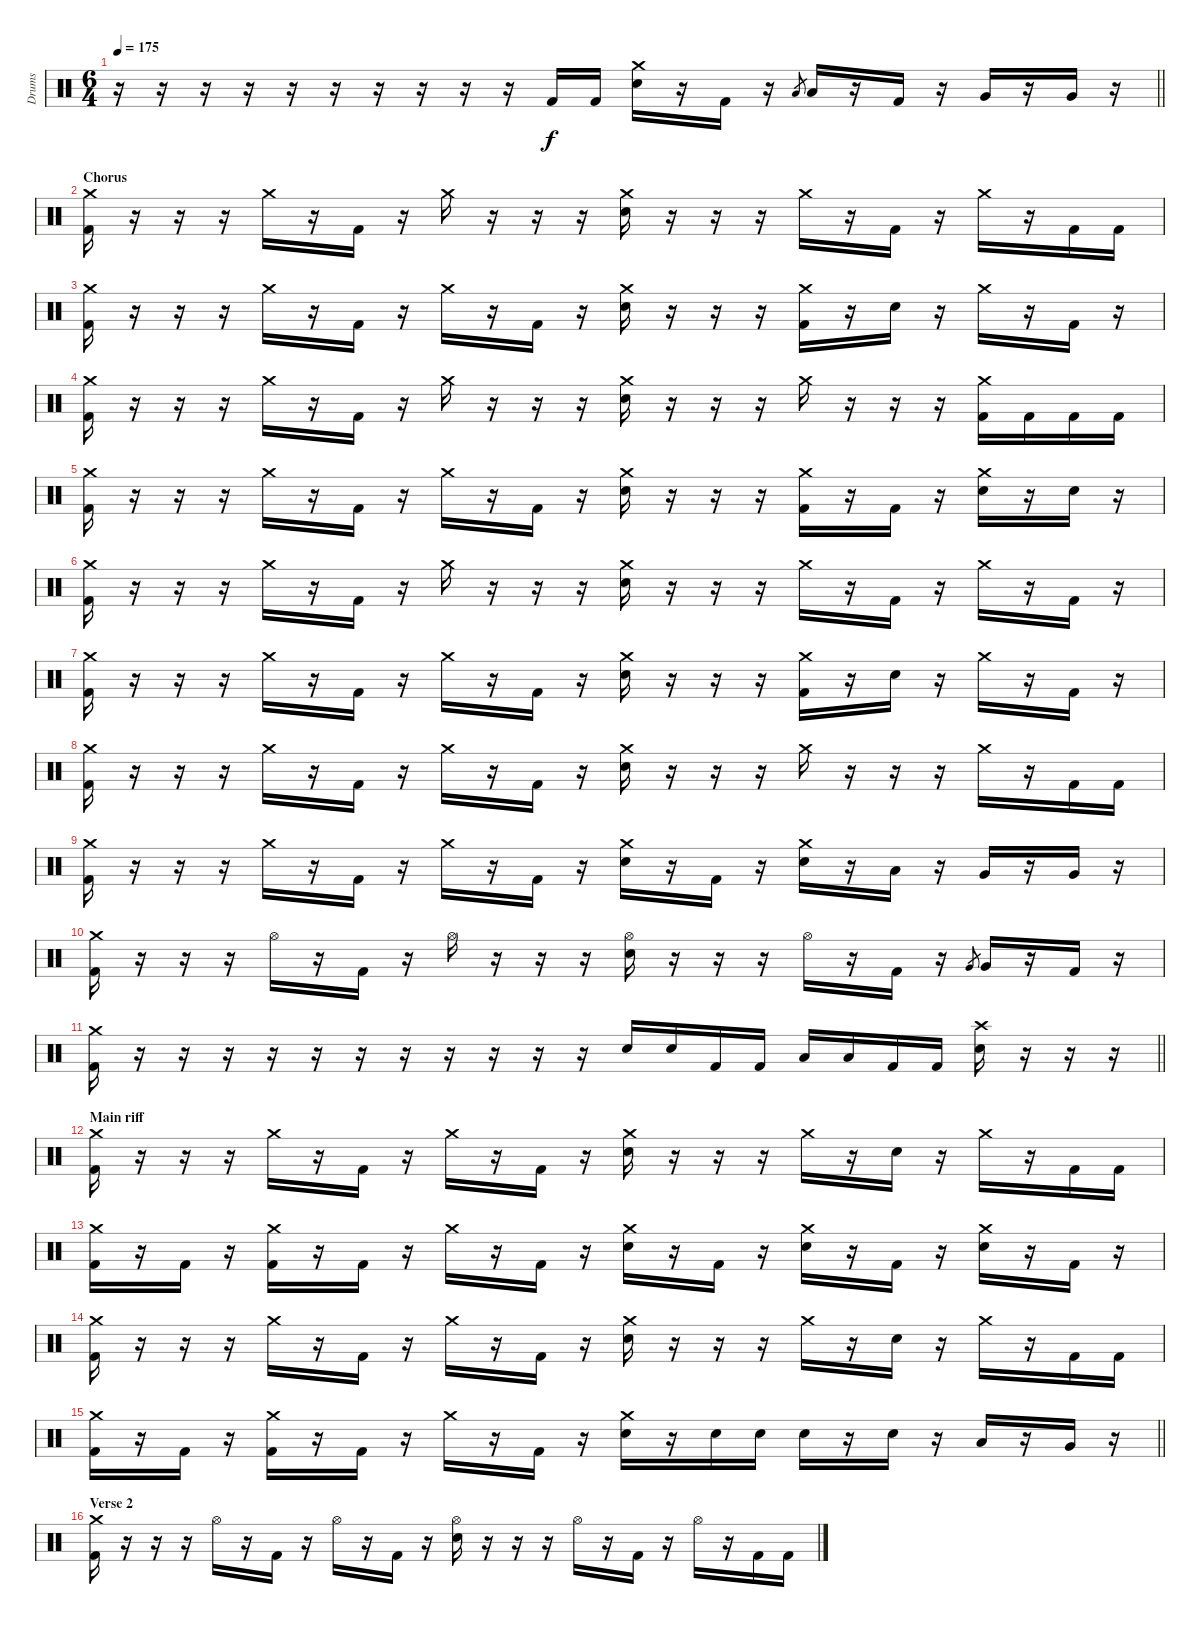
\track ("Drums" "Drums") {instrument percussion}
\staff {score}
\articulation defaults
\ts (6 4)
\tempo 175
\clef neutral
\barLineRight lightlight
\ks c
r.16{dy f} r.16 r.16 r.16 r.16 r.16 r.16 r.16 r.16 r.16 "Kick (hit) 2".16 "Kick (hit) 2".16 ("Crash medium (hit)" "Electric Snare (hit)").16 r.16 "Kick (hit) 2".16 r.16 "Low Tom (hit)".8{gr} "Low Tom (hit)".16 r.16 "Kick (hit) 2".16 r.16 "Very Low Tom (hit)".16 r.16 "Very Low Tom (hit)".16 r.16 |
\section ("" "Chorus")
("Crash medium (hit)" "Kick (hit) 2").16 r.16 r.16 r.16 "Crash medium (hit)".16 r.16 "Kick (hit) 2".16 r.16 "Crash medium (hit)".16 r.16 r.16 r.16 ("Crash medium (hit)" "Electric Snare (hit)").16 r.16 r.16 r.16 "Crash medium (hit)".16 r.16 "Kick (hit) 2".16 r.16 "Crash medium (hit)".16 r.16 "Kick (hit) 2".16 "Kick (hit) 2".16 |
("Crash medium (hit)" "Kick (hit) 2").16 r.16 r.16 r.16 "Crash medium (hit)".16 r.16 "Kick (hit) 2".16 r.16 "Crash medium (hit)".16 r.16 "Kick (hit) 2".16 r.16 ("Crash medium (hit)" "Electric Snare (hit)").16 r.16 r.16 r.16 ("Crash medium (hit)" "Kick (hit) 2").16 r.16 "Electric Snare (hit)".16 r.16 "Crash medium (hit)".16 r.16 "Kick (hit) 2".16 r.16 |
("Crash medium (hit)" "Kick (hit) 2").16 r.16 r.16 r.16 "Crash medium (hit)".16 r.16 "Kick (hit) 2".16 r.16 "Crash medium (hit)".16 r.16 r.16 r.16 ("Crash medium (hit)" "Electric Snare (hit)").16 r.16 r.16 r.16 "Crash medium (hit)".16 r.16 r.16 r.16 ("Crash medium (hit)" "Kick (hit) 2").16 "Kick (hit) 2".16 "Kick (hit) 2".16 "Kick (hit) 2".16 |
("Crash medium (hit)" "Kick (hit) 2").16 r.16 r.16 r.16 "Crash medium (hit)".16 r.16 "Kick (hit) 2".16 r.16 "Crash medium (hit)".16 r.16 "Kick (hit) 2".16 r.16 ("Crash medium (hit)" "Electric Snare (hit)").16 r.16 r.16 r.16 ("Crash medium (hit)" "Kick (hit) 2").16 r.16 "Kick (hit) 2".16 r.16 ("Crash medium (hit)" "Electric Snare (hit)").16 r.16 "Electric Snare (hit)".16 r.16 |
("Crash medium (hit)" "Kick (hit) 2").16 r.16 r.16 r.16 "Crash medium (hit)".16 r.16 "Kick (hit) 2".16 r.16 "Crash medium (hit)".16 r.16 r.16 r.16 ("Crash medium (hit)" "Electric Snare (hit)").16 r.16 r.16 r.16 "Crash medium (hit)".16 r.16 "Kick (hit) 2".16 r.16 "Crash medium (hit)".16 r.16 "Kick (hit) 2".16 r.16 |
("Crash medium (hit)" "Kick (hit) 2").16 r.16 r.16 r.16 "Crash medium (hit)".16 r.16 "Kick (hit) 2".16 r.16 "Crash medium (hit)".16 r.16 "Kick (hit) 2".16 r.16 ("Crash medium (hit)" "Electric Snare (hit)").16 r.16 r.16 r.16 ("Crash medium (hit)" "Kick (hit) 2").16 r.16 "Electric Snare (hit)".16 r.16 "Crash medium (hit)".16 r.16 "Kick (hit) 2".16 r.16 |
("Crash medium (hit)" "Kick (hit) 2").16 r.16 r.16 r.16 "Crash medium (hit)".16 r.16 "Kick (hit) 2".16 r.16 "Crash medium (hit)".16 r.16 "Kick (hit) 2".16 r.16 ("Crash medium (hit)" "Electric Snare (hit)").16 r.16 r.16 r.16 "Crash medium (hit)".16 r.16 r.16 r.16 "Crash medium (hit)".16 r.16 "Kick (hit) 2".16 "Kick (hit) 2".16 |
("Crash medium (hit)" "Kick (hit) 2").16 r.16 r.16 r.16 "Crash medium (hit)".16 r.16 "Kick (hit) 2".16 r.16 "Crash medium (hit)".16 r.16 "Kick (hit) 2".16 r.16 ("Crash medium (hit)" "Electric Snare (hit)").16 r.16 "Kick (hit) 2".16 r.16 ("Crash medium (hit)" "Electric Snare (hit)").16 r.16 "Low Tom (hit)".16 r.16 "Very Low Tom (hit)".16 r.16 "Very Low Tom (hit)".16 r.16 |
("Crash medium (hit)" "Kick (hit) 2").16 r.16 r.16 r.16 "Hi-Hat (open)".16 r.16 "Kick (hit) 2".16 r.16 "Hi-Hat (open)".16 r.16 r.16 r.16 ("Hi-Hat (open)" "Electric Snare (hit)").16 r.16 r.16 r.16 "Hi-Hat (open)".16 r.16 "Kick (hit) 2".16 r.16 "Very Low Tom (hit)".8{gr} "Very Low Tom (hit)".16 r.16 "Kick (hit) 2".16 r.16 |
\barLineRight lightlight
("Crash medium (hit)" "Kick (hit) 2").16 r.16 r.16 r.16 r.16 r.16 r.16 r.16 r.16 r.16 r.16 r.16 "Electric Snare (hit)".16 "Electric Snare (hit)".16 "Kick (hit) 2".16 "Kick (hit) 2".16 "Low Tom (hit)".16 "Low Tom (hit)".16 "Kick (hit) 2".16 "Kick (hit) 2".16 ("Crash high (hit)" "Electric Snare (hit)").16 r.16 r.16 r.16 |
\section ("" "Main riff")
("Crash medium (hit)" "Kick (hit) 2").16 r.16 r.16 r.16 "Crash medium (hit)".16 r.16 "Kick (hit) 2".16 r.16 "Crash medium (hit)".16 r.16 "Kick (hit) 2".16 r.16 ("Crash medium (hit)" "Electric Snare (hit)").16 r.16 r.16 r.16 "Crash medium (hit)".16 r.16 "Electric Snare (hit)".16 r.16 "Crash medium (hit)".16 r.16 "Kick (hit) 2".16 "Kick (hit) 2".16 |
("Crash medium (hit)" "Kick (hit) 2").16 r.16 "Kick (hit) 2".16 r.16 ("Crash medium (hit)" "Kick (hit) 2").16 r.16 "Kick (hit) 2".16 r.16 "Crash medium (hit)".16 r.16 "Kick (hit) 2".16 r.16 ("Crash medium (hit)" "Electric Snare (hit)").16 r.16 "Kick (hit) 2".16 r.16 ("Crash medium (hit)" "Electric Snare (hit)").16 r.16 "Kick (hit) 2".16 r.16 ("Crash medium (hit)" "Electric Snare (hit)").16 r.16 "Kick (hit) 2".16 r.16 |
("Crash medium (hit)" "Kick (hit) 2").16 r.16 r.16 r.16 "Crash medium (hit)".16 r.16 "Kick (hit) 2".16 r.16 "Crash medium (hit)".16 r.16 "Kick (hit) 2".16 r.16 ("Crash medium (hit)" "Electric Snare (hit)").16 r.16 r.16 r.16 "Crash medium (hit)".16 r.16 "Electric Snare (hit)".16 r.16 "Crash medium (hit)".16 r.16 "Kick (hit) 2".16 "Kick (hit) 2".16 |
\barLineRight lightlight
("Crash medium (hit)" "Kick (hit) 2").16 r.16 "Kick (hit) 2".16 r.16 ("Crash medium (hit)" "Kick (hit) 2").16 r.16 "Kick (hit) 2".16 r.16 "Crash medium (hit)".16 r.16 "Kick (hit) 2".16 r.16 ("Crash medium (hit)" "Electric Snare (hit)").16 r.16 "Electric Snare (hit)".16 "Electric Snare (hit)".16 "Electric Snare (hit)".16 r.16 "Electric Snare (hit)".16 r.16 "Low Tom (hit)".16 r.16 "Very Low Tom (hit)".16 r.16 |
\section ("" "Verse 2")
("Crash medium (hit)" "Kick (hit) 2").16 r.16 r.16 r.16 "Hi-Hat (open)".16 r.16 "Kick (hit) 2".16 r.16 "Hi-Hat (open)".16 r.16 "Kick (hit) 2".16 r.16 ("Hi-Hat (open)" "Electric Snare (hit)").16 r.16 r.16 r.16 "Hi-Hat (open)".16 r.16 "Kick (hit) 2".16 r.16 "Hi-Hat (open)".16 r.16 "Kick (hit) 2".16 "Kick (hit) 2".16
